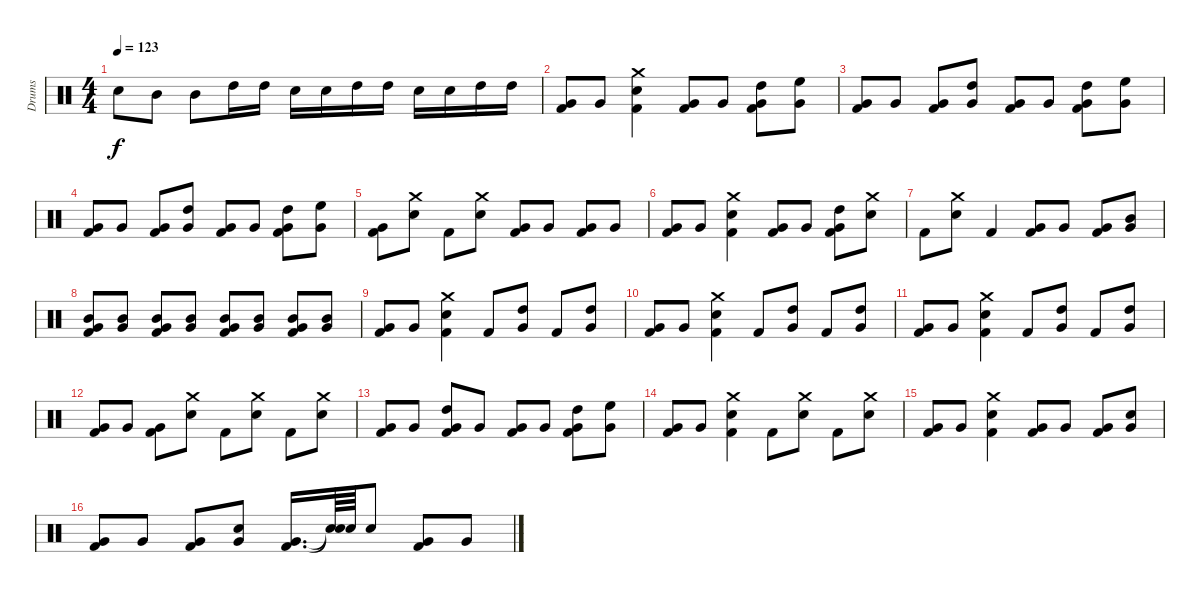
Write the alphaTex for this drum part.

\track ("Drums" "Drums") {instrument percussion}
\staff {score}
\articulation defaults
\ts (4 4)
\tempo 123
\clef neutral
\ks c "Snare (hit) 2".8{dy f} "Mid Tom (hit)".8 "Mid Tom (hit)".8 "High Tom (hit)".16 "High Tom (hit)".16 "Snare (hit) 2".16 "Snare (hit) 2".16 "High Tom (hit)".16 "High Tom (hit)".16 "Snare (hit) 2".16 "Snare (hit) 2".16 "High Tom (hit)".16 "High Tom (hit)".16
|
("Very Low Tom (hit)" "Kick (hit) 2").8 "Very Low Tom (hit)".8 ("Crash medium (hit)" "Snare (hit) 2" "Kick (hit) 2").4 ("Very Low Tom (hit)" "Kick (hit) 2").8 "Very Low Tom (hit)".8 ("High Tom (hit)" "Very Low Tom (hit)" "Kick (hit) 2").8 ("High Floor Tom (hit)" "Very Low Tom (hit)").8 |
("Very Low Tom (hit)" "Kick (hit) 2").8 "Very Low Tom (hit)".8 ("Very Low Tom (hit)" "Kick (hit) 2").8 ("High Tom (hit)" "Very Low Tom (hit)").8 ("Very Low Tom (hit)" "Kick (hit) 2").8 "Very Low Tom (hit)".8 ("High Tom (hit)" "Very Low Tom (hit)" "Kick (hit) 2").8 ("High Floor Tom (hit)" "Very Low Tom (hit)").8 |
("Very Low Tom (hit)" "Kick (hit) 2").8 "Very Low Tom (hit)".8 ("Very Low Tom (hit)" "Kick (hit) 2").8 ("High Tom (hit)" "Very Low Tom (hit)").8 ("Very Low Tom (hit)" "Kick (hit) 2").8 "Very Low Tom (hit)".8 ("High Tom (hit)" "Very Low Tom (hit)" "Kick (hit) 2").8 ("High Floor Tom (hit)" "Very Low Tom (hit)").8 |
("Very Low Tom (hit)" "Kick (hit) 2").8 ("Crash medium (hit)" "Snare (hit) 2").8 "Kick (hit) 2".8 ("Snare (hit) 2" "Crash medium (hit)").8 ("Very Low Tom (hit)" "Kick (hit) 2").8 "Very Low Tom (hit)".8 ("Very Low Tom (hit)" "Kick (hit) 2").8 "Very Low Tom (hit)".8 |
("Very Low Tom (hit)" "Kick (hit) 2").8 "Very Low Tom (hit)".8 ("Snare (hit) 2" "Crash medium (hit)" "Kick (hit) 2").4 ("Very Low Tom (hit)" "Kick (hit) 2").8 "Very Low Tom (hit)".8 ("High Tom (hit)" "Very Low Tom (hit)" "Kick (hit) 2").8 ("Crash medium (hit)" "Snare (hit) 2").8 |
"Kick (hit) 2".8 ("Snare (hit) 2" "Crash medium (hit)").8 "Kick (hit) 2".4 ("Very Low Tom (hit)" "Kick (hit) 2").8 "Very Low Tom (hit)".8 ("Very Low Tom (hit)" "Kick (hit) 2").8 ("Mid Tom (hit)" "Very Low Tom (hit)").8 |
("Mid Tom (hit)" "Very Low Tom (hit)" "Kick (hit) 2").8 ("Mid Tom (hit)" "Very Low Tom (hit)").8 ("Mid Tom (hit)" "Very Low Tom (hit)" "Kick (hit) 2").8 ("Mid Tom (hit)" "Very Low Tom (hit)").8 ("Mid Tom (hit)" "Very Low Tom (hit)" "Kick (hit) 2").8 ("Mid Tom (hit)" "Very Low Tom (hit)").8 ("Mid Tom (hit)" "Very Low Tom (hit)" "Kick (hit) 2").8 ("Mid Tom (hit)" "Very Low Tom (hit)").8 |
("Very Low Tom (hit)" "Kick (hit) 2").8 "Very Low Tom (hit)".8 ("Crash medium (hit)" "Snare (hit) 2" "Kick (hit) 2").4 "Kick (hit) 2".8 ("High Tom (hit)" "Very Low Tom (hit)").8 "Kick (hit) 2".8 ("High Tom (hit)" "Very Low Tom (hit)").8 |
("Very Low Tom (hit)" "Kick (hit) 2").8 "Very Low Tom (hit)".8 ("Crash medium (hit)" "Snare (hit) 2" "Kick (hit) 2").4 "Kick (hit) 2".8 ("High Tom (hit)" "Very Low Tom (hit)").8 "Kick (hit) 2".8 ("High Tom (hit)" "Very Low Tom (hit)").8 |
("Very Low Tom (hit)" "Kick (hit) 2").8 "Very Low Tom (hit)".8 ("Crash medium (hit)" "Snare (hit) 2" "Kick (hit) 2").4 "Kick (hit) 2".8 ("High Tom (hit)" "Very Low Tom (hit)").8 "Kick (hit) 2".8 ("High Tom (hit)" "Very Low Tom (hit)").8 |
("Very Low Tom (hit)" "Kick (hit) 2").8 "Very Low Tom (hit)".8 ("Very Low Tom (hit)" "Kick (hit) 2").8 ("Crash medium (hit)" "Snare (hit) 2").8 "Kick (hit) 2".8 ("Snare (hit) 2" "Crash medium (hit)").8 "Kick (hit) 2".8 ("Snare (hit) 2" "Crash medium (hit)").8 |
("Very Low Tom (hit)" "Kick (hit) 2").8 "Very Low Tom (hit)".8 ("High Tom (hit)" "Very Low Tom (hit)" "Kick (hit) 2").8 "Very Low Tom (hit)".8 ("Very Low Tom (hit)" "Kick (hit) 2").8 "Very Low Tom (hit)".8 ("High Tom (hit)" "Very Low Tom (hit)" "Kick (hit) 2").8 ("High Floor Tom (hit)" "Very Low Tom (hit)").8 |
("Very Low Tom (hit)" "Kick (hit) 2").8 "Very Low Tom (hit)".8 ("Snare (hit) 2" "Crash medium (hit)" "Kick (hit) 2").4 "Kick (hit) 2".8 ("Snare (hit) 2" "Crash medium (hit)").8 "Kick (hit) 2".8 ("Snare (hit) 2" "Crash medium (hit)").8 |
("Very Low Tom (hit)" "Kick (hit) 2").8 "Very Low Tom (hit)".8 ("Crash medium (hit)" "Snare (hit) 2" "Kick (hit) 2").4 ("Very Low Tom (hit)" "Kick (hit) 2").8 "Very Low Tom (hit)".8 ("Very Low Tom (hit)" "Kick (hit) 2").8 ("Snare (hit) 2" "Very Low Tom (hit)").8 |
("Very Low Tom (hit)" "Kick (hit) 2").8 "Very Low Tom (hit)".8 ("Very Low Tom (hit)" "Kick (hit) 2").8 ("Snare (hit) 2" "Very Low Tom (hit)").8 ("Very Low Tom (hit)" "Kick (hit) 2").16{d} ("Snare (hit)"{t} "Snare (hit)"{t}).64 "Snare (hit) 2".64 "Snare (hit) 2".8 ("Very Low Tom (hit)" "Kick (hit) 2").8 "Very Low Tom (hit)".8
